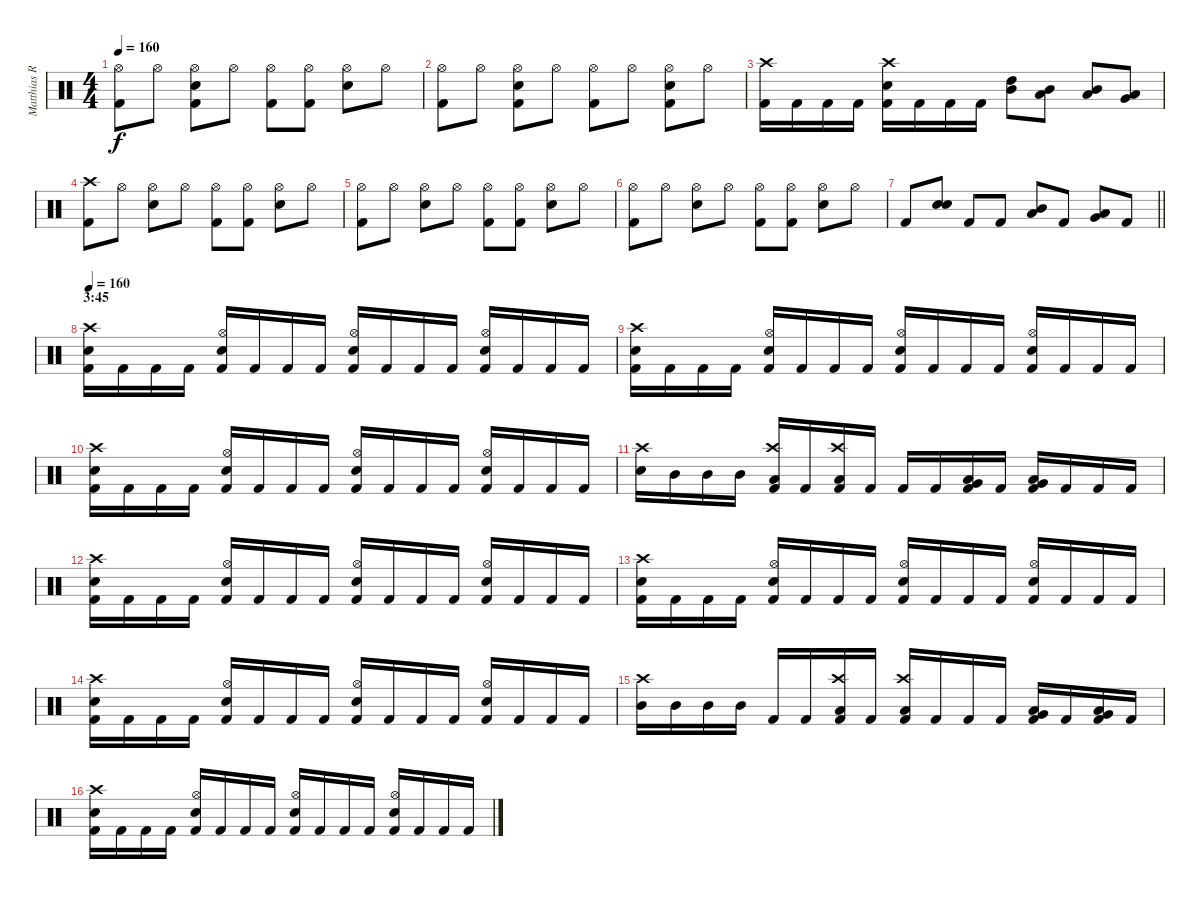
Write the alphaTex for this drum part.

\track ("Matthias R." "Matthias R") {instrument percussion}
\staff {score}
\articulation defaults
\ts (4 4)
\tempo 160
\clef neutral
\ks c
("Kick (hit) 2" "Hi-Hat (open)").8{dy f} "Hi-Hat (open)".8 ("Kick (hit) 2" "Snare (hit) 2" "Hi-Hat (open)").8 "Hi-Hat (open)".8 ("Kick (hit) 2" "Hi-Hat (open)").8 ("Kick (hit) 2" "Hi-Hat (open)").8 ("Snare (hit) 2" "Hi-Hat (open)").8 "Hi-Hat (open)".8 |
("Kick (hit) 2" "Hi-Hat (open)").8 "Hi-Hat (open)".8 ("Kick (hit) 2" "Snare (hit) 2" "Hi-Hat (open)").8 "Hi-Hat (open)".8 ("Kick (hit) 2" "Hi-Hat (open)").8 "Hi-Hat (open)".8 ("Kick (hit) 2" "Snare (hit) 2" "Hi-Hat (open)").8 "Hi-Hat (open)".8 |
("Kick (hit) 2" "Crash high (hit)").16 "Kick (hit) 2".16 "Kick (hit) 2".16 "Kick (hit) 2".16 ("Kick (hit) 2" "Snare (hit) 2" "Crash high (hit)").16 "Kick (hit) 2".16 "Kick (hit) 2".16 "Kick (hit) 2".16 ("High Tom (hit)" "Mid Tom (hit)").8 ("Mid Tom (hit)" "Low Tom (hit)").8 ("Mid Tom (hit)" "Low Tom (hit)").8 ("Low Tom (hit)" "Very Low Tom (hit)").8 |
("Kick (hit) 2" "Crash high (hit)").8 "Hi-Hat (open)".8 ("Snare (hit) 2" "Hi-Hat (open)").8 "Hi-Hat (open)".8 ("Kick (hit) 2" "Hi-Hat (open)").8 ("Kick (hit) 2" "Hi-Hat (open)").8 ("Snare (hit) 2" "Hi-Hat (open)").8 "Hi-Hat (open)".8 |
("Kick (hit) 2" "Hi-Hat (open)").8 "Hi-Hat (open)".8 ("Snare (hit) 2" "Hi-Hat (open)").8 "Hi-Hat (open)".8 ("Kick (hit) 2" "Hi-Hat (open)").8 ("Kick (hit) 2" "Hi-Hat (open)").8 ("Snare (hit) 2" "Hi-Hat (open)").8 "Hi-Hat (open)".8 |
("Kick (hit) 2" "Hi-Hat (open)").8 "Hi-Hat (open)".8 ("Snare (hit) 2" "Hi-Hat (open)").8 "Hi-Hat (open)".8 ("Kick (hit) 2" "Hi-Hat (open)").8 ("Kick (hit) 2" "Hi-Hat (open)").8 ("Snare (hit) 2" "Hi-Hat (open)").8 "Hi-Hat (open)".8 |
\barLineRight lightlight "Kick (hit) 2".8
("Snare (hit) 2" "Snare (hit) 2").8{bu 30} "Kick (hit) 2".8 "Kick (hit) 2".8 ("Mid Tom (hit)" "Low Tom (hit)").8 "Kick (hit) 2".8 ("Low Tom (hit)" "Very Low Tom (hit)").8 "Kick (hit) 2".8 |
\section ("" "3:45")
\tempo 160
("Kick (hit) 2" "Snare (hit) 2" "Crash high (hit)").16 "Kick (hit) 2".16 "Kick (hit) 2".16 "Kick (hit) 2".16 ("Kick (hit) 2" "Snare (hit) 2" "Hi-Hat (open)").16 "Kick (hit) 2".16 "Kick (hit) 2".16 "Kick (hit) 2".16 ("Kick (hit) 2" "Snare (hit) 2" "Hi-Hat (open)").16 "Kick (hit) 2".16 "Kick (hit) 2".16 "Kick (hit) 2".16 ("Kick (hit) 2" "Snare (hit) 2" "Hi-Hat (open)").16 "Kick (hit) 2".16 "Kick (hit) 2".16 "Kick (hit) 2".16 |
("Kick (hit) 2" "Snare (hit) 2" "Crash high (hit)").16 "Kick (hit) 2".16 "Kick (hit) 2".16 "Kick (hit) 2".16 ("Kick (hit) 2" "Snare (hit) 2" "Hi-Hat (open)").16 "Kick (hit) 2".16 "Kick (hit) 2".16 "Kick (hit) 2".16 ("Kick (hit) 2" "Snare (hit) 2" "Hi-Hat (open)").16 "Kick (hit) 2".16 "Kick (hit) 2".16 "Kick (hit) 2".16 ("Kick (hit) 2" "Snare (hit) 2" "Hi-Hat (open)").16 "Kick (hit) 2".16 "Kick (hit) 2".16 "Kick (hit) 2".16 |
("Kick (hit) 2" "Snare (hit) 2" "Crash high (hit)").16 "Kick (hit) 2".16 "Kick (hit) 2".16 "Kick (hit) 2".16 ("Kick (hit) 2" "Snare (hit) 2" "Hi-Hat (open)").16 "Kick (hit) 2".16 "Kick (hit) 2".16 "Kick (hit) 2".16 ("Kick (hit) 2" "Snare (hit) 2" "Hi-Hat (open)").16 "Kick (hit) 2".16 "Kick (hit) 2".16 "Kick (hit) 2".16 ("Kick (hit) 2" "Snare (hit) 2" "Hi-Hat (open)").16 "Kick (hit) 2".16 "Kick (hit) 2".16 "Kick (hit) 2".16 |
("Snare (hit) 2" "Crash high (hit)").16 "Mid Tom (hit)".16 "Mid Tom (hit)".16 "Mid Tom (hit)".16 ("Kick (hit) 2" "Low Tom (hit)" "Crash high (hit)").16 "Kick (hit) 2".16 ("Kick (hit) 2" "Low Tom (hit)" "Crash high (hit)").16 "Kick (hit) 2".16 "Kick (hit) 2".16 "Kick (hit) 2".16 ("Kick (hit) 2" "Very Low Tom (hit)" "Low Floor Tom (hit)").16 "Kick (hit) 2".16 ("Kick (hit) 2" "Very Low Tom (hit)" "Low Floor Tom (hit)").16 "Kick (hit) 2".16 "Kick (hit) 2".16 "Kick (hit) 2".16 |
("Kick (hit) 2" "Snare (hit) 2" "Crash high (hit)").16 "Kick (hit) 2".16 "Kick (hit) 2".16 "Kick (hit) 2".16 ("Kick (hit) 2" "Snare (hit) 2" "Hi-Hat (open)").16 "Kick (hit) 2".16 "Kick (hit) 2".16 "Kick (hit) 2".16 ("Kick (hit) 2" "Snare (hit) 2" "Hi-Hat (open)").16 "Kick (hit) 2".16 "Kick (hit) 2".16 "Kick (hit) 2".16 ("Kick (hit) 2" "Snare (hit) 2" "Hi-Hat (open)").16 "Kick (hit) 2".16 "Kick (hit) 2".16 "Kick (hit) 2".16 |
("Kick (hit) 2" "Snare (hit) 2" "Crash high (hit)").16 "Kick (hit) 2".16 "Kick (hit) 2".16 "Kick (hit) 2".16 ("Kick (hit) 2" "Snare (hit) 2" "Hi-Hat (open)").16 "Kick (hit) 2".16 "Kick (hit) 2".16 "Kick (hit) 2".16 ("Kick (hit) 2" "Snare (hit) 2" "Hi-Hat (open)").16 "Kick (hit) 2".16 "Kick (hit) 2".16 "Kick (hit) 2".16 ("Kick (hit) 2" "Snare (hit) 2" "Hi-Hat (open)").16 "Kick (hit) 2".16 "Kick (hit) 2".16 "Kick (hit) 2".16 |
("Kick (hit) 2" "Snare (hit) 2" "Crash high (hit)").16 "Kick (hit) 2".16 "Kick (hit) 2".16 "Kick (hit) 2".16 ("Kick (hit) 2" "Snare (hit) 2" "Hi-Hat (open)").16 "Kick (hit) 2".16 "Kick (hit) 2".16 "Kick (hit) 2".16 ("Kick (hit) 2" "Snare (hit) 2" "Hi-Hat (open)").16 "Kick (hit) 2".16 "Kick (hit) 2".16 "Kick (hit) 2".16 ("Kick (hit) 2" "Snare (hit) 2" "Hi-Hat (open)").16 "Kick (hit) 2".16 "Kick (hit) 2".16 "Kick (hit) 2".16 |
("Mid Tom (hit)" "Crash high (hit)").16 "Mid Tom (hit)".16 "Mid Tom (hit)".16 "Mid Tom (hit)".16 "Kick (hit) 2".16 "Kick (hit) 2".16 ("Kick (hit) 2" "Low Tom (hit)" "Crash high (hit)").16 "Kick (hit) 2".16 ("Kick (hit) 2" "Low Tom (hit)" "Crash high (hit)").16 "Kick (hit) 2".16 "Kick (hit) 2".16 "Kick (hit) 2".16 ("Kick (hit) 2" "Very Low Tom (hit)" "Low Floor Tom (hit)").16 "Kick (hit) 2".16 ("Kick (hit) 2" "Very Low Tom (hit)" "Low Floor Tom (hit)").16 "Kick (hit) 2".16 |
("Kick (hit) 2" "Snare (hit) 2" "Crash high (hit)").16 "Kick (hit) 2".16 "Kick (hit) 2".16 "Kick (hit) 2".16 ("Kick (hit) 2" "Snare (hit) 2" "Hi-Hat (open)").16 "Kick (hit) 2".16 "Kick (hit) 2".16 "Kick (hit) 2".16 ("Kick (hit) 2" "Snare (hit) 2" "Hi-Hat (open)").16 "Kick (hit) 2".16 "Kick (hit) 2".16 "Kick (hit) 2".16 ("Kick (hit) 2" "Snare (hit) 2" "Hi-Hat (open)").16 "Kick (hit) 2".16 "Kick (hit) 2".16 "Kick (hit) 2".16
